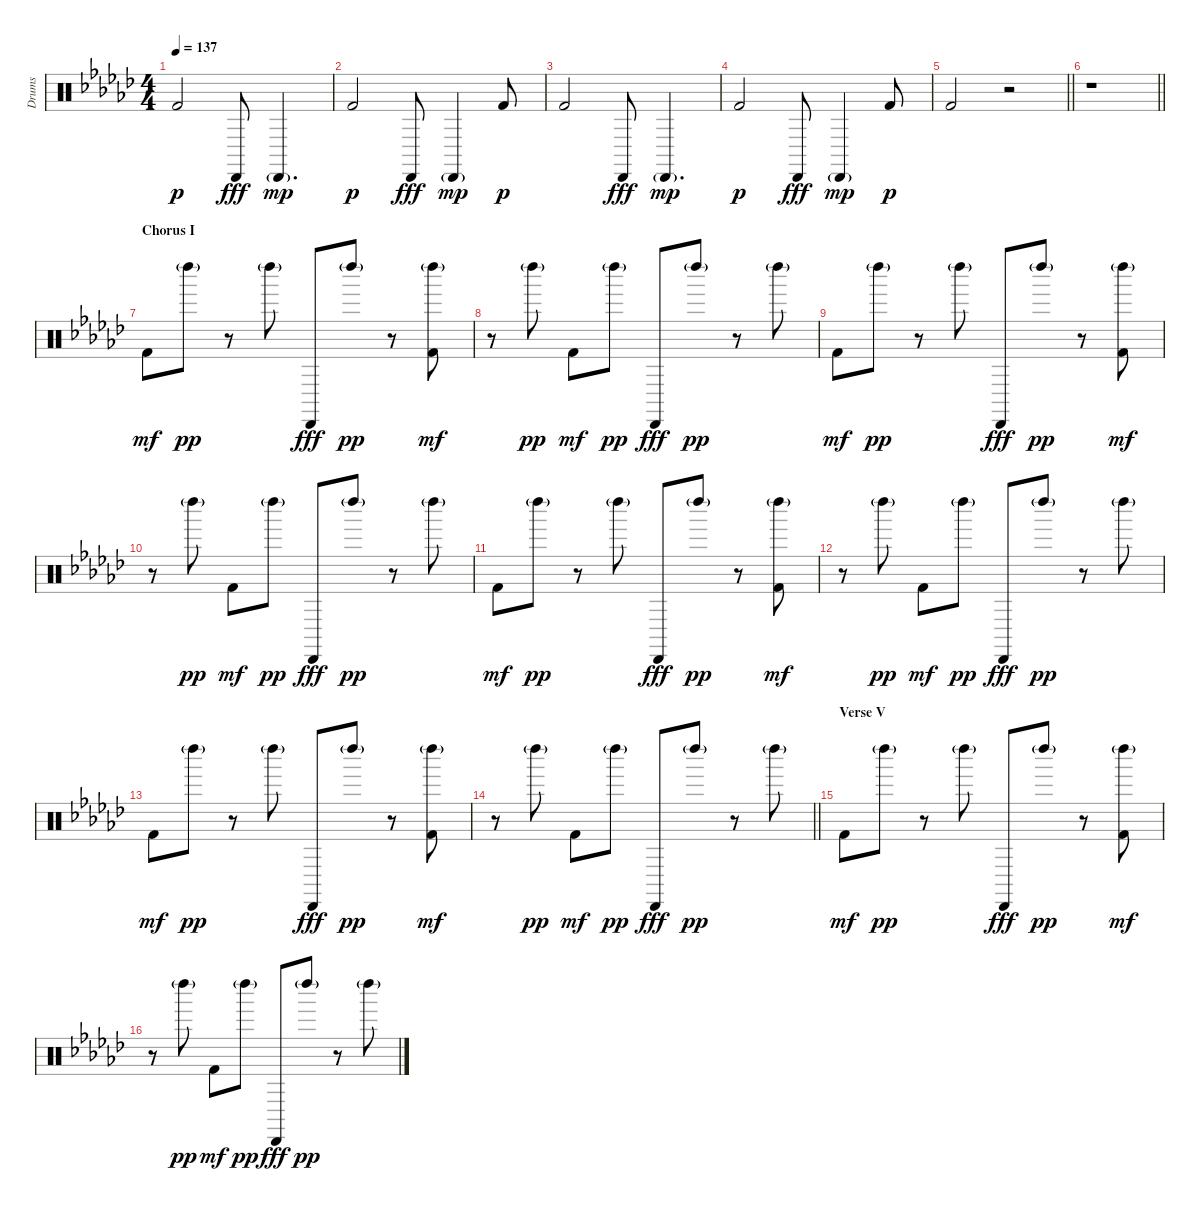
\track ("Drums" "Drums") {instrument percussion}
\staff
\articulation defaults
\ts (4 4)
\tempo 137
\clef neutral
\ks ebminor "Kick (hit) 2".2{dy p} "Cabasa (hit)".8{dy fff} "Cabasa (hit)"{g}.4{d dy mp}
|
"Kick (hit) 2".2{dy p} "Cabasa (hit)".8{dy fff} "Cabasa (hit)"{g}.4{dy mp} "Kick (hit) 2".8{dy p} |
"Kick (hit) 2".2 "Cabasa (hit)".8{dy fff} "Cabasa (hit)"{g}.4{d dy mp} |
"Kick (hit) 2".2{dy p} "Cabasa (hit)".8{dy fff} "Cabasa (hit)"{g}.4{dy mp} "Kick (hit) 2".8{dy p} |
\barLineRight lightlight "Kick (hit) 2".2
r.2 |
\barLineRight lightlight
r.1 |
\section ("" "Chorus I")
"Kick (hit) 2".8{dy mf} "Left Maraca (hit)"{g}.8{dy pp} r.8 "Left Maraca (hit)"{g}.8 "Cabasa (hit)".8{dy fff} "Left Maraca (hit)"{g}.8{dy pp} r.8 ("Left Maraca (hit)"{g} "Kick (hit) 2").8{dy mf} |
r.8 "Left Maraca (hit)"{g}.8{dy pp} "Kick (hit) 2".8{dy mf} "Left Maraca (hit)"{g}.8{dy pp} "Cabasa (hit)".8{dy fff} "Left Maraca (hit)"{g}.8{dy pp} r.8 "Left Maraca (hit)"{g}.8 |
"Kick (hit) 2".8{dy mf} "Left Maraca (hit)"{g}.8{dy pp} r.8 "Left Maraca (hit)"{g}.8 "Cabasa (hit)".8{dy fff} "Left Maraca (hit)"{g}.8{dy pp} r.8 ("Left Maraca (hit)"{g} "Kick (hit) 2").8{dy mf} |
r.8 "Left Maraca (hit)"{g}.8{dy pp} "Kick (hit) 2".8{dy mf} "Left Maraca (hit)"{g}.8{dy pp} "Cabasa (hit)".8{dy fff} "Left Maraca (hit)"{g}.8{dy pp} r.8 "Left Maraca (hit)"{g}.8 |
"Kick (hit) 2".8{dy mf} "Left Maraca (hit)"{g}.8{dy pp} r.8 "Left Maraca (hit)"{g}.8 "Cabasa (hit)".8{dy fff} "Left Maraca (hit)"{g}.8{dy pp} r.8 ("Left Maraca (hit)"{g} "Kick (hit) 2").8{dy mf} |
r.8 "Left Maraca (hit)"{g}.8{dy pp} "Kick (hit) 2".8{dy mf} "Left Maraca (hit)"{g}.8{dy pp} "Cabasa (hit)".8{dy fff} "Left Maraca (hit)"{g}.8{dy pp} r.8 "Left Maraca (hit)"{g}.8 |
"Kick (hit) 2".8{dy mf} "Left Maraca (hit)"{g}.8{dy pp} r.8 "Left Maraca (hit)"{g}.8 "Cabasa (hit)".8{dy fff} "Left Maraca (hit)"{g}.8{dy pp} r.8 ("Left Maraca (hit)"{g} "Kick (hit) 2").8{dy mf} |
\barLineRight lightlight
r.8 "Left Maraca (hit)"{g}.8{dy pp} "Kick (hit) 2".8{dy mf} "Left Maraca (hit)"{g}.8{dy pp} "Cabasa (hit)".8{dy fff} "Left Maraca (hit)"{g}.8{dy pp} r.8 "Left Maraca (hit)"{g}.8 |
\section ("" "Verse V")
"Kick (hit) 2".8{dy mf} "Left Maraca (hit)"{g}.8{dy pp} r.8 "Left Maraca (hit)"{g}.8 "Cabasa (hit)".8{dy fff} "Left Maraca (hit)"{g}.8{dy pp} r.8 ("Left Maraca (hit)"{g} "Kick (hit) 2").8{dy mf} |
r.8 "Left Maraca (hit)"{g}.8{dy pp} "Kick (hit) 2".8{dy mf} "Left Maraca (hit)"{g}.8{dy pp} "Cabasa (hit)".8{dy fff} "Left Maraca (hit)"{g}.8{dy pp} r.8 "Left Maraca (hit)"{g}.8
